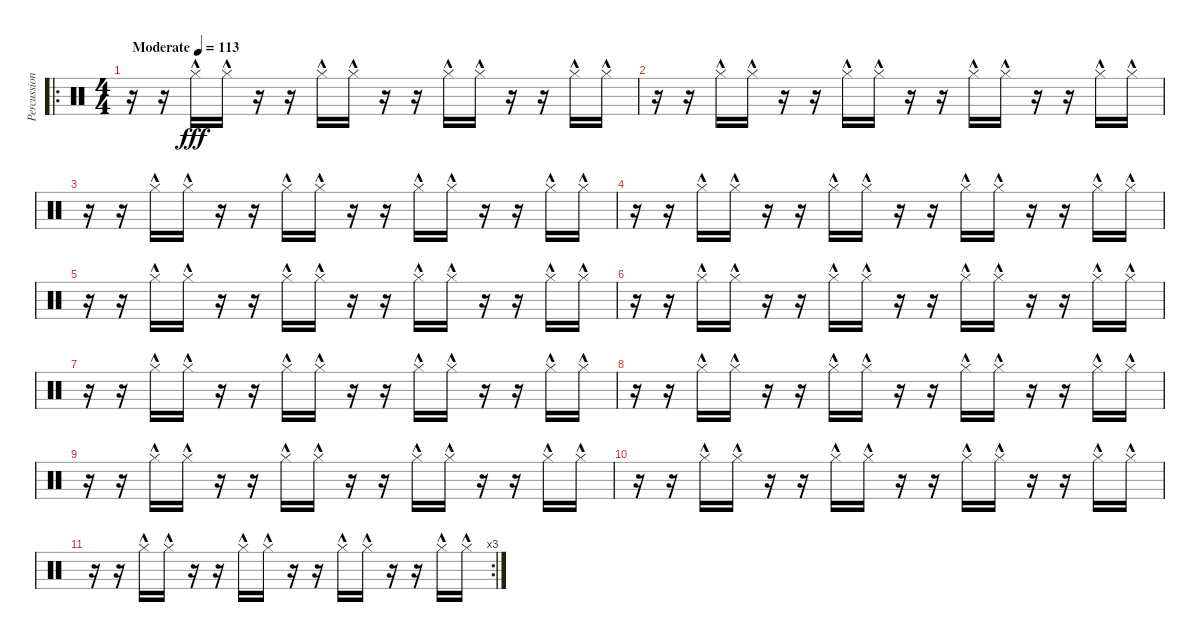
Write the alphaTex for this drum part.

\track ("Percussion" "Percussion") {instrument percussion bank 255}
\staff {score}
\articulation defaults
\ro
\ts (4 4)
\tempo (113 "Moderate")
\clef neutral
\ks c
r.16{dy fff} r.16 "Hi-Hat (closed)"{hac}.16 "Hi-Hat (closed)"{hac}.16 r.16 r.16 "Hi-Hat (closed)"{hac}.16 "Hi-Hat (closed)"{hac}.16 r.16 r.16 "Hi-Hat (closed)"{hac}.16 "Hi-Hat (closed)"{hac}.16 r.16 r.16 "Hi-Hat (closed)"{hac}.16 "Hi-Hat (closed)"{hac}.16 |
r.16 r.16 "Hi-Hat (closed)"{hac}.16 "Hi-Hat (closed)"{hac}.16 r.16 r.16 "Hi-Hat (closed)"{hac}.16 "Hi-Hat (closed)"{hac}.16 r.16 r.16 "Hi-Hat (closed)"{hac}.16 "Hi-Hat (closed)"{hac}.16 r.16 r.16 "Hi-Hat (closed)"{hac}.16 "Hi-Hat (closed)"{hac}.16 |
r.16 r.16 "Hi-Hat (closed)"{hac}.16 "Hi-Hat (closed)"{hac}.16 r.16 r.16 "Hi-Hat (closed)"{hac}.16 "Hi-Hat (closed)"{hac}.16 r.16 r.16 "Hi-Hat (closed)"{hac}.16 "Hi-Hat (closed)"{hac}.16 r.16 r.16 "Hi-Hat (closed)"{hac}.16 "Hi-Hat (closed)"{hac}.16 |
r.16 r.16 "Hi-Hat (closed)"{hac}.16 "Hi-Hat (closed)"{hac}.16 r.16 r.16 "Hi-Hat (closed)"{hac}.16 "Hi-Hat (closed)"{hac}.16 r.16 r.16 "Hi-Hat (closed)"{hac}.16 "Hi-Hat (closed)"{hac}.16 r.16 r.16 "Hi-Hat (closed)"{hac}.16 "Hi-Hat (closed)"{hac}.16 |
r.16 r.16 "Hi-Hat (closed)"{hac}.16 "Hi-Hat (closed)"{hac}.16 r.16 r.16 "Hi-Hat (closed)"{hac}.16 "Hi-Hat (closed)"{hac}.16 r.16 r.16 "Hi-Hat (closed)"{hac}.16 "Hi-Hat (closed)"{hac}.16 r.16 r.16 "Hi-Hat (closed)"{hac}.16 "Hi-Hat (closed)"{hac}.16 |
r.16 r.16 "Hi-Hat (closed)"{hac}.16 "Hi-Hat (closed)"{hac}.16 r.16 r.16 "Hi-Hat (closed)"{hac}.16 "Hi-Hat (closed)"{hac}.16 r.16 r.16 "Hi-Hat (closed)"{hac}.16 "Hi-Hat (closed)"{hac}.16 r.16 r.16 "Hi-Hat (closed)"{hac}.16 "Hi-Hat (closed)"{hac}.16 |
r.16 r.16 "Hi-Hat (closed)"{hac}.16 "Hi-Hat (closed)"{hac}.16 r.16 r.16 "Hi-Hat (closed)"{hac}.16 "Hi-Hat (closed)"{hac}.16 r.16 r.16 "Hi-Hat (closed)"{hac}.16 "Hi-Hat (closed)"{hac}.16 r.16 r.16 "Hi-Hat (closed)"{hac}.16 "Hi-Hat (closed)"{hac}.16 |
r.16 r.16 "Hi-Hat (closed)"{hac}.16 "Hi-Hat (closed)"{hac}.16 r.16 r.16 "Hi-Hat (closed)"{hac}.16 "Hi-Hat (closed)"{hac}.16 r.16 r.16 "Hi-Hat (closed)"{hac}.16 "Hi-Hat (closed)"{hac}.16 r.16 r.16 "Hi-Hat (closed)"{hac}.16 "Hi-Hat (closed)"{hac}.16 |
r.16 r.16 "Hi-Hat (closed)"{hac}.16 "Hi-Hat (closed)"{hac}.16 r.16 r.16 "Hi-Hat (closed)"{hac}.16 "Hi-Hat (closed)"{hac}.16 r.16 r.16 "Hi-Hat (closed)"{hac}.16 "Hi-Hat (closed)"{hac}.16 r.16 r.16 "Hi-Hat (closed)"{hac}.16 "Hi-Hat (closed)"{hac}.16 |
r.16 r.16 "Hi-Hat (closed)"{hac}.16 "Hi-Hat (closed)"{hac}.16 r.16 r.16 "Hi-Hat (closed)"{hac}.16 "Hi-Hat (closed)"{hac}.16 r.16 r.16 "Hi-Hat (closed)"{hac}.16 "Hi-Hat (closed)"{hac}.16 r.16 r.16 "Hi-Hat (closed)"{hac}.16 "Hi-Hat (closed)"{hac}.16 |
\rc 3
r.16 r.16 "Hi-Hat (closed)"{hac}.16 "Hi-Hat (closed)"{hac}.16 r.16 r.16 "Hi-Hat (closed)"{hac}.16 "Hi-Hat (closed)"{hac}.16 r.16 r.16 "Hi-Hat (closed)"{hac}.16 "Hi-Hat (closed)"{hac}.16 r.16 r.16 "Hi-Hat (closed)"{hac}.16 "Hi-Hat (closed)"{hac}.16
